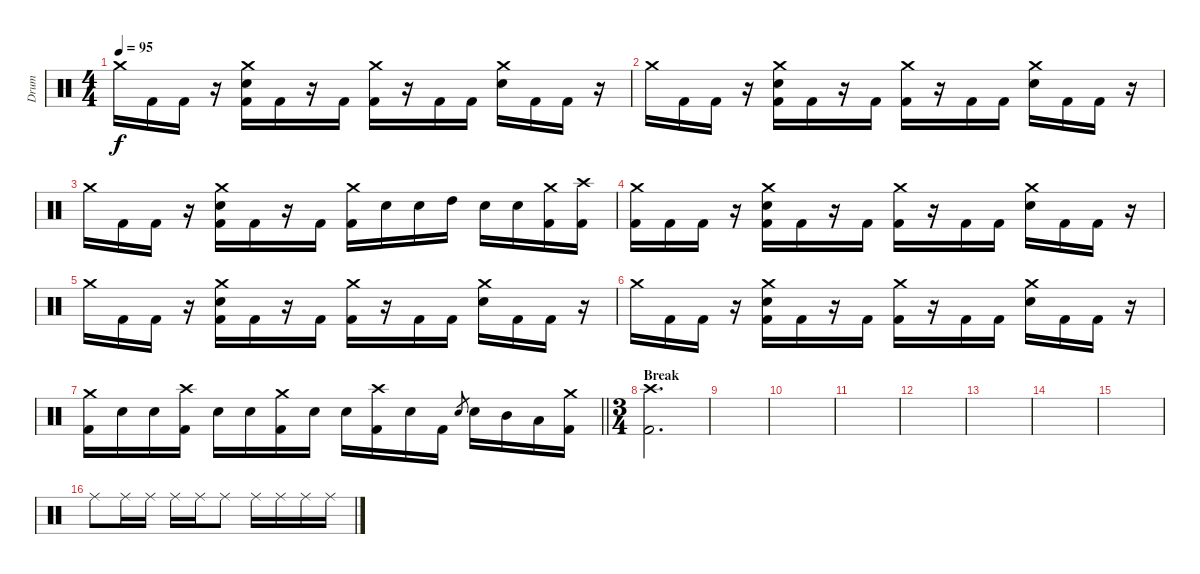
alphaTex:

\track ("Drum" "Drum") {instrument percussion}
\staff {score}
\articulation defaults
\ts (4 4)
\tempo 95
\clef neutral
\ks c "Crash medium (hit)".16{dy f} "Kick (hit) 2".16 "Kick (hit) 2".16
r.16 ("Crash medium (hit)" "Electric Snare (hit)" "Kick (hit) 2").16 "Kick (hit) 2".16 r.16 "Kick (hit) 2".16 ("Crash medium (hit)" "Kick (hit) 2").16 r.16 "Kick (hit) 2".16 "Kick (hit) 2".16 ("Crash medium (hit)" "Electric Snare (hit)").16 "Kick (hit) 2".16 "Kick (hit) 2".16 r.16 |
"Crash medium (hit)".16 "Kick (hit) 2".16 "Kick (hit) 2".16 r.16 ("Crash medium (hit)" "Electric Snare (hit)" "Kick (hit) 2").16 "Kick (hit) 2".16 r.16 "Kick (hit) 2".16 ("Crash medium (hit)" "Kick (hit) 2").16 r.16 "Kick (hit) 2".16 "Kick (hit) 2".16 ("Crash medium (hit)" "Electric Snare (hit)").16 "Kick (hit) 2".16 "Kick (hit) 2".16 r.16 |
"Crash medium (hit)".16 "Kick (hit) 2".16 "Kick (hit) 2".16 r.16 ("Crash medium (hit)" "Electric Snare (hit)" "Kick (hit) 2").16 "Kick (hit) 2".16 r.16 "Kick (hit) 2".16 ("Crash medium (hit)" "Kick (hit) 2").16 "Electric Snare (hit)".16 "Electric Snare (hit)".16 "High Tom (hit)".16 "Electric Snare (hit)".16 "Electric Snare (hit)".16 ("Crash medium (hit)" "Kick (hit) 2").16 ("Crash high (hit)" "Kick (hit) 2").16 |
("Crash medium (hit)" "Kick (hit) 2").16 "Kick (hit) 2".16 "Kick (hit) 2".16 r.16 ("Crash medium (hit)" "Electric Snare (hit)" "Kick (hit) 2").16 "Kick (hit) 2".16 r.16 "Kick (hit) 2".16 ("Crash medium (hit)" "Kick (hit) 2").16 r.16 "Kick (hit) 2".16 "Kick (hit) 2".16 ("Crash medium (hit)" "Electric Snare (hit)").16 "Kick (hit) 2".16 "Kick (hit) 2".16 r.16 |
"Crash medium (hit)".16 "Kick (hit) 2".16 "Kick (hit) 2".16 r.16 ("Crash medium (hit)" "Electric Snare (hit)" "Kick (hit) 2").16 "Kick (hit) 2".16 r.16 "Kick (hit) 2".16 ("Crash medium (hit)" "Kick (hit) 2").16 r.16 "Kick (hit) 2".16 "Kick (hit) 2".16 ("Crash medium (hit)" "Electric Snare (hit)").16 "Kick (hit) 2".16 "Kick (hit) 2".16 r.16 |
"Crash medium (hit)".16 "Kick (hit) 2".16 "Kick (hit) 2".16 r.16 ("Crash medium (hit)" "Electric Snare (hit)" "Kick (hit) 2").16 "Kick (hit) 2".16 r.16 "Kick (hit) 2".16 ("Crash medium (hit)" "Kick (hit) 2").16 r.16 "Kick (hit) 2".16 "Kick (hit) 2".16 ("Crash medium (hit)" "Electric Snare (hit)").16 "Kick (hit) 2".16 "Kick (hit) 2".16 r.16 |
\barLineRight lightlight
("Crash medium (hit)" "Kick (hit) 2").16 "Electric Snare (hit)".16 "Electric Snare (hit)".16 ("Crash high (hit)" "Kick (hit) 2").16 "Electric Snare (hit)".16 "Electric Snare (hit)".16 ("Crash medium (hit)" "Kick (hit) 2").16 "Electric Snare (hit)".16 "Electric Snare (hit)".16 ("Crash high (hit)" "Kick (hit) 2").16 "Electric Snare (hit)".16 "Kick (hit) 2".16 "Electric Snare (hit)".8{gr} "Electric Snare (hit)".16 "Mid Tom (hit)".16 "Low Tom (hit)".16 ("Crash medium (hit)" "Kick (hit) 2").16 |
\ts (3 4)
\section ("" "Break")
("Crash high (hit)" "Kick (hit) 2").2{d} |
|
|
|
|
|
|
|
"Ride (middle)".8 "Ride (middle)".16 "Ride (middle)".16 "Ride (middle)".16 "Ride (middle)".16 "Ride (middle)".8 "Ride (middle)".16 "Ride (middle)".16 "Ride (middle)".16 "Ride (middle)".16
